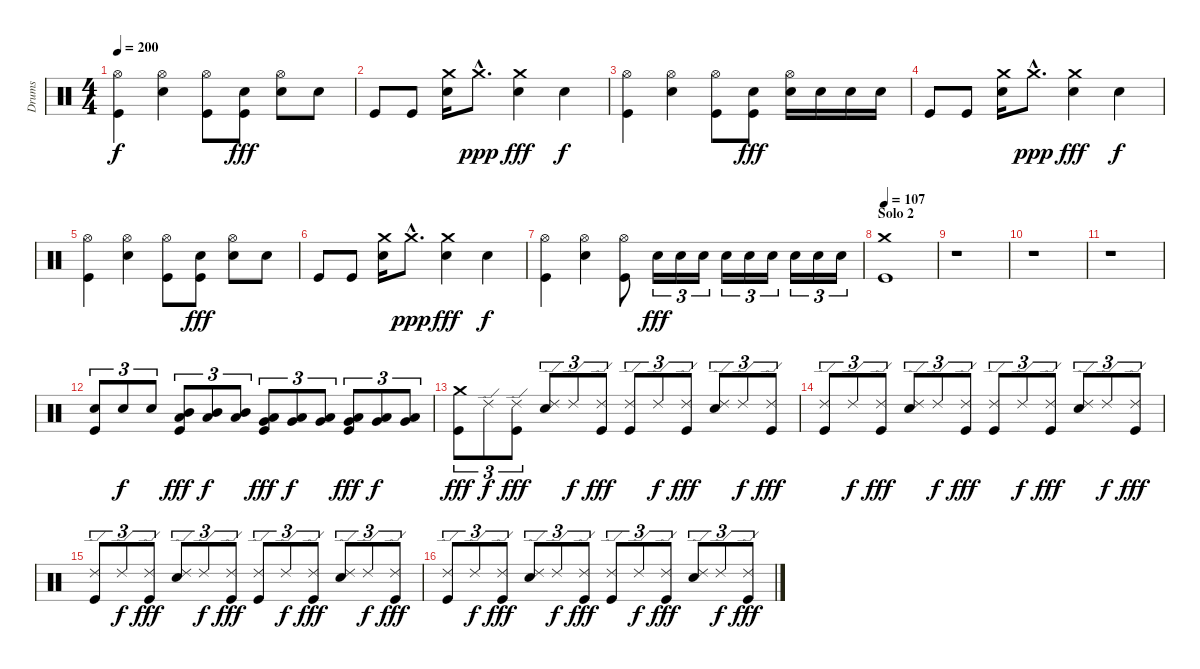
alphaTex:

\track ("Drums" "Drums") {instrument percussion}
\staff {score}
\articulation defaults
\ts (4 4)
\tempo 200
\clef neutral
\ks c
("Hi-Hat (open)" "Kick (hit)").4{dy f} ("Hi-Hat (open)" "Electric Snare (hit)").4 ("Hi-Hat (open)" "Kick (hit)").8 ("Electric Snare (hit)" "Kick (hit)").8{dy fff} ("Hi-Hat (open)" "Electric Snare (hit)").8 "Electric Snare (hit)".8 |
"Kick (hit)".8 "Kick (hit)".8 ("Crash medium (hit)" "Electric Snare (hit)").16 "Crash medium (hit)"{hac}.8{d dy ppp} ("Crash medium (hit)" "Electric Snare (hit)").4{dy fff} "Electric Snare (hit)".4{dy f} |
("Hi-Hat (open)" "Kick (hit)").4 ("Hi-Hat (open)" "Electric Snare (hit)").4 ("Hi-Hat (open)" "Kick (hit)").8 ("Electric Snare (hit)" "Kick (hit)").8{dy fff} ("Hi-Hat (open)" "Electric Snare (hit)").16 "Electric Snare (hit)".16 "Electric Snare (hit)".16 "Electric Snare (hit)".16 |
"Kick (hit)".8 "Kick (hit)".8 ("Crash medium (hit)" "Electric Snare (hit)").16 "Crash medium (hit)"{hac}.8{d dy ppp} ("Crash medium (hit)" "Electric Snare (hit)").4{dy fff} "Electric Snare (hit)".4{dy f} |
("Hi-Hat (open)" "Kick (hit)").4 ("Hi-Hat (open)" "Electric Snare (hit)").4 ("Hi-Hat (open)" "Kick (hit)").8 ("Electric Snare (hit)" "Kick (hit)").8{dy fff} ("Hi-Hat (open)" "Electric Snare (hit)").8 "Electric Snare (hit)".8 |
"Kick (hit)".8 "Kick (hit)".8 ("Crash medium (hit)" "Electric Snare (hit)").16 "Crash medium (hit)"{hac}.8{d dy ppp} ("Crash medium (hit)" "Electric Snare (hit)").4{dy fff} "Electric Snare (hit)".4{dy f} |
("Hi-Hat (open)" "Kick (hit)").4 ("Hi-Hat (open)" "Electric Snare (hit)").4 ("Hi-Hat (open)" "Kick (hit)").8 "Electric Snare (hit)".16{tu (3 2) dy fff} "Electric Snare (hit)".16{tu (3 2)} "Electric Snare (hit)".16{tu (3 2)} "Electric Snare (hit)".16{tu (3 2)} "Electric Snare (hit)".16{tu (3 2)} "Electric Snare (hit)".16{tu (3 2)} "Electric Snare (hit)".16{tu (3 2)} "Electric Snare (hit)".16{tu (3 2)} "Electric Snare (hit)".16{tu (3 2)} |
\section ("" "Solo 2")
\tempo 107
("Crash medium (hit)" "Kick (hit)").1 |
r.1 |
r.1 |
r.1 |
("Electric Snare (hit)" "Kick (hit)").8{tu (3 2)} "Electric Snare (hit)".8{tu (3 2) dy f} "Electric Snare (hit)".8{tu (3 2)} ("Mid Tom (hit)" "Low Tom (hit)" "Kick (hit)").8{tu (3 2) dy fff} ("Mid Tom (hit)" "Low Tom (hit)").8{tu (3 2) dy f} ("Mid Tom (hit)" "Low Tom (hit)").8{tu (3 2)} ("Low Tom (hit)" "Very Low Tom (hit)" "Kick (hit)").8{tu (3 2) dy fff} ("Low Tom (hit)" "Very Low Tom (hit)").8{tu (3 2) dy f} ("Low Tom (hit)" "Very Low Tom (hit)").8{tu (3 2)} ("Very Low Tom (hit)" "Low Floor Tom (hit)" "Kick (hit)").8{tu (3 2) dy fff} ("Very Low Tom (hit)" "Low Floor Tom (hit)").8{tu (3 2) dy f} ("Very Low Tom (hit)" "Low Floor Tom (hit)").8{tu (3 2)} |
("Crash medium (hit)" "Kick (hit)").8{tu (3 2) dy fff volume 14} "Ride (edge) 2".8{tu (3 2) dy f} ("Ride (edge) 2" "Kick (hit)").8{tu (3 2) dy fff} ("Ride (edge) 2" "Electric Snare (hit)").8{tu (3 2)} "Ride (edge) 2".8{tu (3 2) dy f} ("Ride (edge) 2" "Kick (hit)").8{tu (3 2) dy fff} ("Ride (edge) 2" "Kick (hit)").8{tu (3 2)} "Ride (edge) 2".8{tu (3 2) dy f} ("Ride (edge) 2" "Kick (hit)").8{tu (3 2) dy fff} ("Ride (edge) 2" "Electric Snare (hit)").8{tu (3 2)} "Ride (edge) 2".8{tu (3 2) dy f} ("Ride (edge) 2" "Kick (hit)").8{tu (3 2) dy fff} |
("Ride (edge) 2" "Kick (hit)").8{tu (3 2)} "Ride (edge) 2".8{tu (3 2) dy f} ("Ride (edge) 2" "Kick (hit)").8{tu (3 2) dy fff} ("Ride (edge) 2" "Electric Snare (hit)").8{tu (3 2)} "Ride (edge) 2".8{tu (3 2) dy f} ("Ride (edge) 2" "Kick (hit)").8{tu (3 2) dy fff} ("Ride (edge) 2" "Kick (hit)").8{tu (3 2)} "Ride (edge) 2".8{tu (3 2) dy f} ("Ride (edge) 2" "Kick (hit)").8{tu (3 2) dy fff} ("Ride (edge) 2" "Electric Snare (hit)").8{tu (3 2)} "Ride (edge) 2".8{tu (3 2) dy f} ("Ride (edge) 2" "Kick (hit)").8{tu (3 2) dy fff} |
("Ride (edge) 2" "Kick (hit)").8{tu (3 2)} "Ride (edge) 2".8{tu (3 2) dy f} ("Ride (edge) 2" "Kick (hit)").8{tu (3 2) dy fff} ("Ride (edge) 2" "Electric Snare (hit)").8{tu (3 2)} "Ride (edge) 2".8{tu (3 2) dy f} ("Ride (edge) 2" "Kick (hit)").8{tu (3 2) dy fff} ("Ride (edge) 2" "Kick (hit)").8{tu (3 2)} "Ride (edge) 2".8{tu (3 2) dy f} ("Ride (edge) 2" "Kick (hit)").8{tu (3 2) dy fff} ("Ride (edge) 2" "Electric Snare (hit)").8{tu (3 2)} "Ride (edge) 2".8{tu (3 2) dy f} ("Ride (edge) 2" "Kick (hit)").8{tu (3 2) dy fff} |
("Ride (edge) 2" "Kick (hit)").8{tu (3 2)} "Ride (edge) 2".8{tu (3 2) dy f} ("Ride (edge) 2" "Kick (hit)").8{tu (3 2) dy fff} ("Ride (edge) 2" "Electric Snare (hit)").8{tu (3 2)} "Ride (edge) 2".8{tu (3 2) dy f} ("Ride (edge) 2" "Kick (hit)").8{tu (3 2) dy fff} ("Ride (edge) 2" "Kick (hit)").8{tu (3 2)} "Ride (edge) 2".8{tu (3 2) dy f} ("Ride (edge) 2" "Kick (hit)").8{tu (3 2) dy fff} ("Ride (edge) 2" "Electric Snare (hit)").8{tu (3 2)} "Ride (edge) 2".8{tu (3 2) dy f} ("Ride (edge) 2" "Kick (hit)").8{tu (3 2) dy fff}
